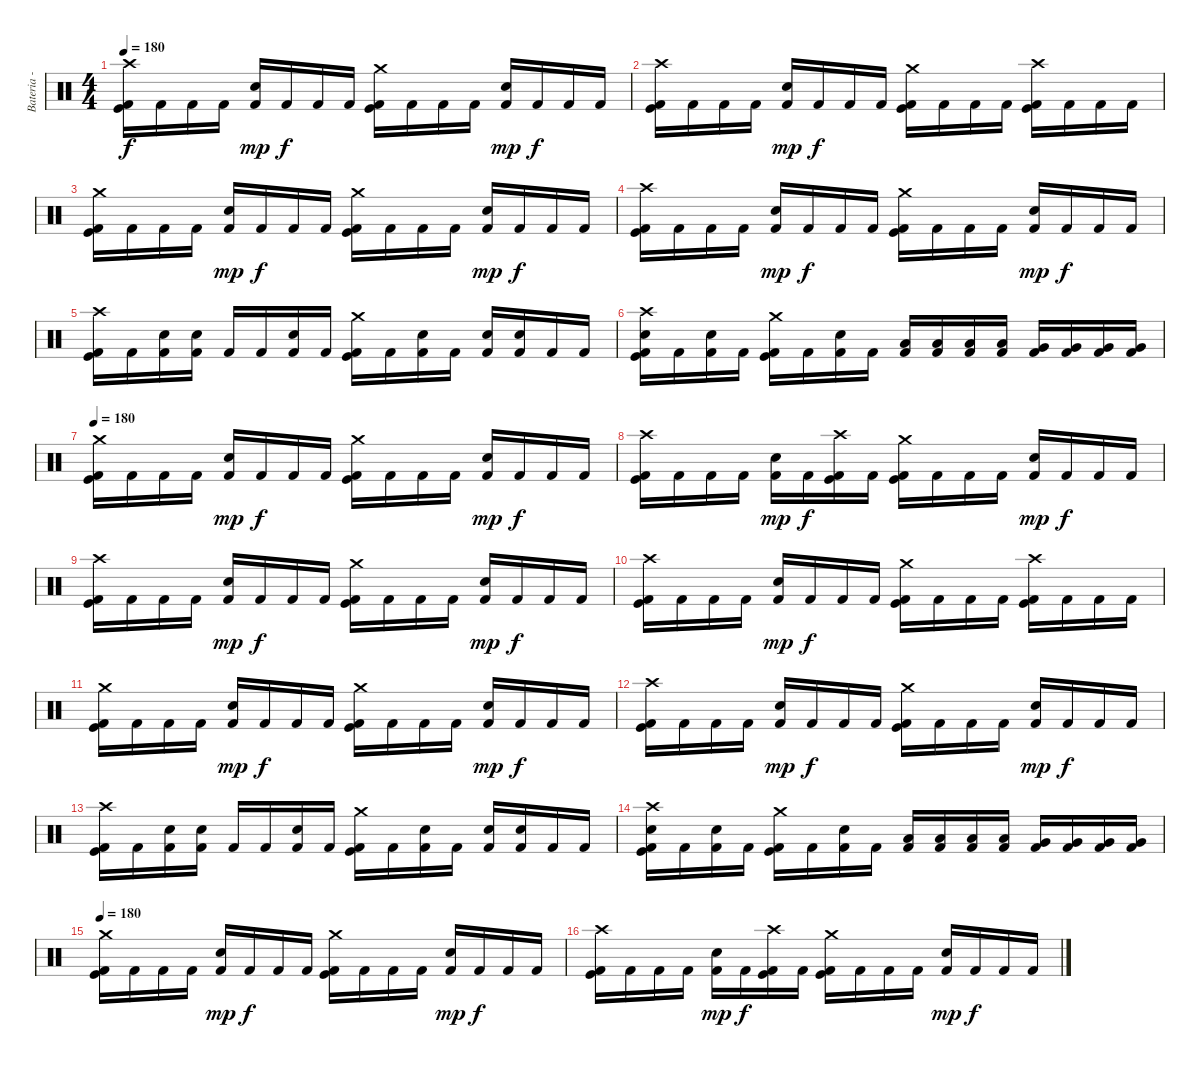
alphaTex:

\track ("Bateria - Drums" "Bateria - ") {instrument percussion}
\staff {score}
\articulation defaults
\ts (4 4)
\tempo 180
\clef neutral
\ks c
("Crash high (hit)" "Kick (hit)" "Kick (hit) 2").16{dy f} "Kick (hit) 2".16 "Kick (hit) 2".16 "Kick (hit) 2".16 ("Snare (hit) 2" "Kick (hit) 2").16{dy mp} "Kick (hit) 2".16{dy f} "Kick (hit) 2".16 "Kick (hit) 2".16 ("Crash medium (hit)" "Kick (hit)" "Kick (hit) 2").16 "Kick (hit) 2".16 "Kick (hit) 2".16 "Kick (hit) 2".16 ("Snare (hit) 2" "Kick (hit) 2").16{dy mp} "Kick (hit) 2".16{dy f} "Kick (hit) 2".16 "Kick (hit) 2".16 |
("Crash high (hit)" "Kick (hit)" "Kick (hit) 2").16 "Kick (hit) 2".16 "Kick (hit) 2".16 "Kick (hit) 2".16 ("Snare (hit) 2" "Kick (hit) 2").16{dy mp} "Kick (hit) 2".16{dy f} "Kick (hit) 2".16 "Kick (hit) 2".16 ("Crash medium (hit)" "Kick (hit)" "Kick (hit) 2").16 "Kick (hit) 2".16 "Kick (hit) 2".16 "Kick (hit) 2".16 ("Crash high (hit)" "Kick (hit)" "Kick (hit) 2").16 "Kick (hit) 2".16 "Kick (hit) 2".16 "Kick (hit) 2".16 |
("Crash medium (hit)" "Kick (hit)" "Kick (hit) 2").16 "Kick (hit) 2".16 "Kick (hit) 2".16 "Kick (hit) 2".16 ("Snare (hit) 2" "Kick (hit) 2").16{dy mp} "Kick (hit) 2".16{dy f} "Kick (hit) 2".16 "Kick (hit) 2".16 ("Crash medium (hit)" "Kick (hit)" "Kick (hit) 2").16 "Kick (hit) 2".16 "Kick (hit) 2".16 "Kick (hit) 2".16 ("Snare (hit) 2" "Kick (hit) 2").16{dy mp} "Kick (hit) 2".16{dy f} "Kick (hit) 2".16 "Kick (hit) 2".16 |
("Crash high (hit)" "Kick (hit)" "Kick (hit) 2").16 "Kick (hit) 2".16 "Kick (hit) 2".16 "Kick (hit) 2".16 ("Snare (hit) 2" "Kick (hit) 2").16{dy mp} "Kick (hit) 2".16{dy f} "Kick (hit) 2".16 "Kick (hit) 2".16 ("Crash medium (hit)" "Kick (hit)" "Kick (hit) 2").16 "Kick (hit) 2".16 "Kick (hit) 2".16 "Kick (hit) 2".16 ("Snare (hit) 2" "Kick (hit) 2").16{dy mp} "Kick (hit) 2".16{dy f} "Kick (hit) 2".16 "Kick (hit) 2".16 |
("Crash high (hit)" "Kick (hit)" "Kick (hit) 2").16 "Kick (hit) 2".16 ("Electric Snare (hit)" "Kick (hit) 2").16 ("Electric Snare (hit)" "Kick (hit) 2").16 "Kick (hit) 2".16 "Kick (hit) 2".16 ("Snare (hit) 2" "Kick (hit) 2").16 "Kick (hit) 2".16 ("Crash medium (hit)" "Kick (hit)" "Kick (hit) 2").16 "Kick (hit) 2".16 ("Snare (hit) 2" "Kick (hit) 2").16 "Kick (hit) 2".16 ("Snare (hit) 2" "Kick (hit) 2").16 ("Snare (hit) 2" "Kick (hit) 2").16 "Kick (hit) 2".16 "Kick (hit) 2".16 |
("Crash high (hit)" "Snare (hit) 2" "Kick (hit)" "Kick (hit) 2").16 "Kick (hit) 2".16 ("Snare (hit) 2" "Kick (hit) 2").16 "Kick (hit) 2".16 ("Crash medium (hit)" "Kick (hit)" "Kick (hit) 2").16 "Kick (hit) 2".16 ("Snare (hit) 2" "Kick (hit) 2").16 "Kick (hit) 2".16 ("Low Tom (hit)" "Kick (hit) 2").16 ("Low Tom (hit)" "Kick (hit) 2").16 ("Low Tom (hit)" "Kick (hit) 2").16 ("Low Tom (hit)" "Kick (hit) 2").16 ("Very Low Tom (hit)" "Kick (hit) 2").16 ("Very Low Tom (hit)" "Kick (hit) 2").16 ("Very Low Tom (hit)" "Kick (hit) 2").16 ("Very Low Tom (hit)" "Kick (hit) 2").16 |
\tempo 180
("Crash medium (hit)" "Kick (hit)" "Kick (hit) 2").16 "Kick (hit) 2".16 "Kick (hit) 2".16 "Kick (hit) 2".16 ("Snare (hit) 2" "Kick (hit) 2").16{dy mp} "Kick (hit) 2".16{dy f} "Kick (hit) 2".16 "Kick (hit) 2".16 ("Crash medium (hit)" "Kick (hit)" "Kick (hit) 2").16 "Kick (hit) 2".16 "Kick (hit) 2".16 "Kick (hit) 2".16 ("Snare (hit) 2" "Kick (hit) 2").16{dy mp} "Kick (hit) 2".16{dy f} "Kick (hit) 2".16 "Kick (hit) 2".16 |
("Crash high (hit)" "Kick (hit)" "Kick (hit) 2").16 "Kick (hit) 2".16 "Kick (hit) 2".16 "Kick (hit) 2".16 ("Snare (hit) 2" "Kick (hit) 2").16{dy mp} "Kick (hit) 2".16{dy f} ("Crash high (hit)" "Kick (hit)" "Kick (hit) 2").16 "Kick (hit) 2".16 ("Crash medium (hit)" "Kick (hit)" "Kick (hit) 2").16 "Kick (hit) 2".16 "Kick (hit) 2".16 "Kick (hit) 2".16 ("Snare (hit) 2" "Kick (hit) 2").16{dy mp} "Kick (hit) 2".16{dy f} "Kick (hit) 2".16 "Kick (hit) 2".16 |
("Crash high (hit)" "Kick (hit)" "Kick (hit) 2").16 "Kick (hit) 2".16 "Kick (hit) 2".16 "Kick (hit) 2".16 ("Snare (hit) 2" "Kick (hit) 2").16{dy mp} "Kick (hit) 2".16{dy f} "Kick (hit) 2".16 "Kick (hit) 2".16 ("Crash medium (hit)" "Kick (hit)" "Kick (hit) 2").16 "Kick (hit) 2".16 "Kick (hit) 2".16 "Kick (hit) 2".16 ("Snare (hit) 2" "Kick (hit) 2").16{dy mp} "Kick (hit) 2".16{dy f} "Kick (hit) 2".16 "Kick (hit) 2".16 |
("Crash high (hit)" "Kick (hit)" "Kick (hit) 2").16 "Kick (hit) 2".16 "Kick (hit) 2".16 "Kick (hit) 2".16 ("Snare (hit) 2" "Kick (hit) 2").16{dy mp} "Kick (hit) 2".16{dy f} "Kick (hit) 2".16 "Kick (hit) 2".16 ("Crash medium (hit)" "Kick (hit)" "Kick (hit) 2").16 "Kick (hit) 2".16 "Kick (hit) 2".16 "Kick (hit) 2".16 ("Crash high (hit)" "Kick (hit)" "Kick (hit) 2").16 "Kick (hit) 2".16 "Kick (hit) 2".16 "Kick (hit) 2".16 |
("Crash medium (hit)" "Kick (hit)" "Kick (hit) 2").16 "Kick (hit) 2".16 "Kick (hit) 2".16 "Kick (hit) 2".16 ("Snare (hit) 2" "Kick (hit) 2").16{dy mp} "Kick (hit) 2".16{dy f} "Kick (hit) 2".16 "Kick (hit) 2".16 ("Crash medium (hit)" "Kick (hit)" "Kick (hit) 2").16 "Kick (hit) 2".16 "Kick (hit) 2".16 "Kick (hit) 2".16 ("Snare (hit) 2" "Kick (hit) 2").16{dy mp} "Kick (hit) 2".16{dy f} "Kick (hit) 2".16 "Kick (hit) 2".16 |
("Crash high (hit)" "Kick (hit)" "Kick (hit) 2").16 "Kick (hit) 2".16 "Kick (hit) 2".16 "Kick (hit) 2".16 ("Snare (hit) 2" "Kick (hit) 2").16{dy mp} "Kick (hit) 2".16{dy f} "Kick (hit) 2".16 "Kick (hit) 2".16 ("Crash medium (hit)" "Kick (hit)" "Kick (hit) 2").16 "Kick (hit) 2".16 "Kick (hit) 2".16 "Kick (hit) 2".16 ("Snare (hit) 2" "Kick (hit) 2").16{dy mp} "Kick (hit) 2".16{dy f} "Kick (hit) 2".16 "Kick (hit) 2".16 |
("Crash high (hit)" "Kick (hit)" "Kick (hit) 2").16 "Kick (hit) 2".16 ("Electric Snare (hit)" "Kick (hit) 2").16 ("Electric Snare (hit)" "Kick (hit) 2").16 "Kick (hit) 2".16 "Kick (hit) 2".16 ("Snare (hit) 2" "Kick (hit) 2").16 "Kick (hit) 2".16 ("Crash medium (hit)" "Kick (hit)" "Kick (hit) 2").16 "Kick (hit) 2".16 ("Snare (hit) 2" "Kick (hit) 2").16 "Kick (hit) 2".16 ("Snare (hit) 2" "Kick (hit) 2").16 ("Snare (hit) 2" "Kick (hit) 2").16 "Kick (hit) 2".16 "Kick (hit) 2".16 |
("Crash high (hit)" "Snare (hit) 2" "Kick (hit)" "Kick (hit) 2").16 "Kick (hit) 2".16 ("Snare (hit) 2" "Kick (hit) 2").16 "Kick (hit) 2".16 ("Crash medium (hit)" "Kick (hit)" "Kick (hit) 2").16 "Kick (hit) 2".16 ("Snare (hit) 2" "Kick (hit) 2").16 "Kick (hit) 2".16 ("Low Tom (hit)" "Kick (hit) 2").16 ("Low Tom (hit)" "Kick (hit) 2").16 ("Low Tom (hit)" "Kick (hit) 2").16 ("Low Tom (hit)" "Kick (hit) 2").16 ("Very Low Tom (hit)" "Kick (hit) 2").16 ("Very Low Tom (hit)" "Kick (hit) 2").16 ("Very Low Tom (hit)" "Kick (hit) 2").16 ("Very Low Tom (hit)" "Kick (hit) 2").16 |
\tempo 180
("Crash medium (hit)" "Kick (hit)" "Kick (hit) 2").16 "Kick (hit) 2".16 "Kick (hit) 2".16 "Kick (hit) 2".16 ("Snare (hit) 2" "Kick (hit) 2").16{dy mp} "Kick (hit) 2".16{dy f} "Kick (hit) 2".16 "Kick (hit) 2".16 ("Crash medium (hit)" "Kick (hit)" "Kick (hit) 2").16 "Kick (hit) 2".16 "Kick (hit) 2".16 "Kick (hit) 2".16 ("Snare (hit) 2" "Kick (hit) 2").16{dy mp} "Kick (hit) 2".16{dy f} "Kick (hit) 2".16 "Kick (hit) 2".16 |
("Crash high (hit)" "Kick (hit)" "Kick (hit) 2").16 "Kick (hit) 2".16 "Kick (hit) 2".16 "Kick (hit) 2".16 ("Snare (hit) 2" "Kick (hit) 2").16{dy mp} "Kick (hit) 2".16{dy f} ("Crash high (hit)" "Kick (hit)" "Kick (hit) 2").16 "Kick (hit) 2".16 ("Crash medium (hit)" "Kick (hit)" "Kick (hit) 2").16 "Kick (hit) 2".16 "Kick (hit) 2".16 "Kick (hit) 2".16 ("Snare (hit) 2" "Kick (hit) 2").16{dy mp} "Kick (hit) 2".16{dy f} "Kick (hit) 2".16 "Kick (hit) 2".16
